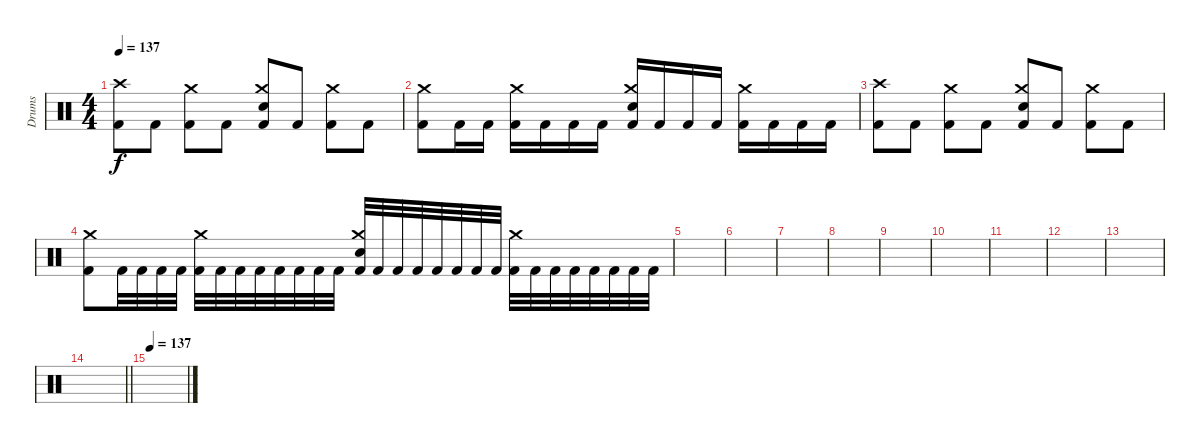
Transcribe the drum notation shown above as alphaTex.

\track ("Drums" "Drums") {instrument percussion}
\staff
\articulation defaults
\ts (4 4)
\tempo 137
\clef neutral
\ks c
("Crash high (hit)" "Kick (hit) 2").8{dy f} "Kick (hit) 2".8 ("Crash medium (hit)" "Kick (hit) 2").8 "Kick (hit) 2".8 ("Crash medium (hit)" "Electric Snare (hit)" "Kick (hit) 2").8 "Kick (hit) 2".8 ("Crash medium (hit)" "Kick (hit) 2").8 "Kick (hit) 2".8 |
("Crash medium (hit)" "Kick (hit) 2").8 "Kick (hit) 2".16 "Kick (hit) 2".16 ("Crash medium (hit)" "Kick (hit) 2").16 "Kick (hit) 2".16 "Kick (hit) 2".16 "Kick (hit) 2".16 ("Crash medium (hit)" "Electric Snare (hit)" "Kick (hit) 2").16 "Kick (hit) 2".16 "Kick (hit) 2".16 "Kick (hit) 2".16 ("Crash medium (hit)" "Kick (hit) 2").16 "Kick (hit) 2".16 "Kick (hit) 2".16 "Kick (hit) 2".16 |
("Crash high (hit)" "Kick (hit) 2").8 "Kick (hit) 2".8 ("Crash medium (hit)" "Kick (hit) 2").8 "Kick (hit) 2".8 ("Crash medium (hit)" "Electric Snare (hit)" "Kick (hit) 2").8 "Kick (hit) 2".8 ("Crash medium (hit)" "Kick (hit) 2").8 "Kick (hit) 2".8 |
("Crash medium (hit)" "Kick (hit) 2").8 "Kick (hit) 2".32 "Kick (hit) 2".32 "Kick (hit) 2".32 "Kick (hit) 2".32 ("Crash medium (hit)" "Kick (hit) 2").32 "Kick (hit) 2".32 "Kick (hit) 2".32 "Kick (hit) 2".32 "Kick (hit) 2".32 "Kick (hit) 2".32 "Kick (hit) 2".32 "Kick (hit) 2".32 ("Crash medium (hit)" "Electric Snare (hit)" "Kick (hit) 2").32 "Kick (hit) 2".32 "Kick (hit) 2".32 "Kick (hit) 2".32 "Kick (hit) 2".32 "Kick (hit) 2".32 "Kick (hit) 2".32 "Kick (hit) 2".32 ("Crash medium (hit)" "Kick (hit) 2").32 "Kick (hit) 2".32 "Kick (hit) 2".32 "Kick (hit) 2".32 "Kick (hit) 2".32 "Kick (hit) 2".32 "Kick (hit) 2".32 "Kick (hit) 2".32 |
|
|
|
|
|
|
|
|
|
\barLineRight lightlight
|
\tempo 137
